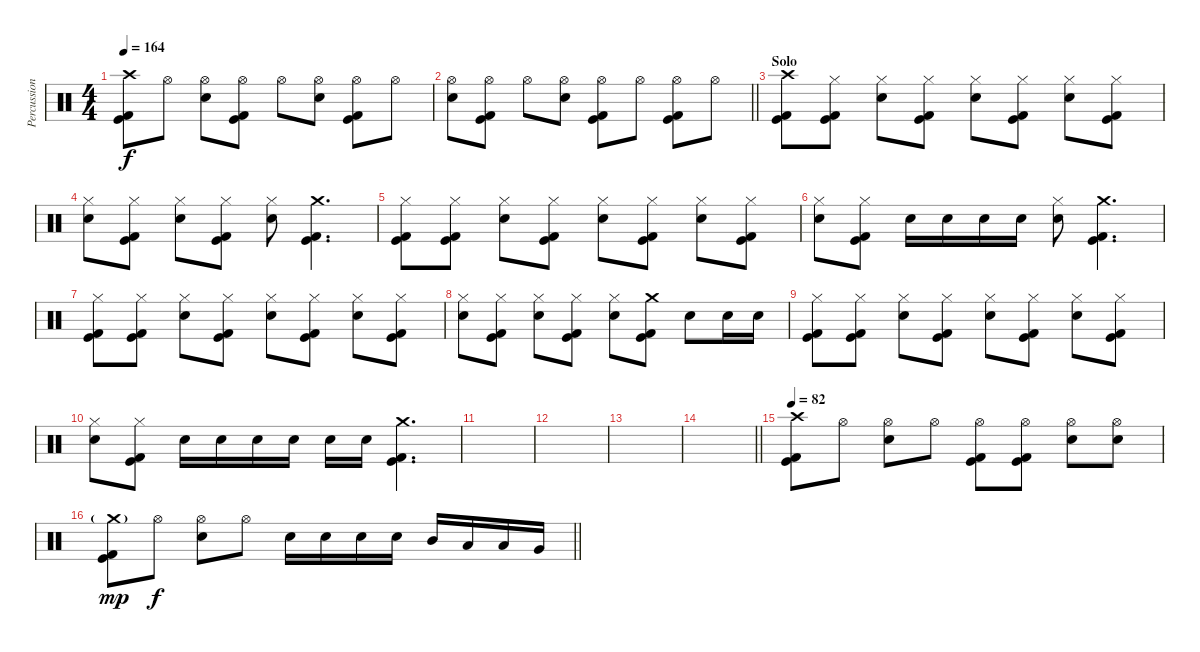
\track ("Percussion" "Percussion") {instrument percussion}
\staff {score}
\articulation defaults
\ts (4 4)
\tempo 164
\clef neutral
\ks c
("Crash high (hit)" "Kick (hit)" "Kick (hit) 2").8{dy f} "Hi-Hat (open)".8 ("Hi-Hat (open)" "Electric Snare (hit)").8 ("Hi-Hat (open)" "Kick (hit)" "Kick (hit) 2").8 "Hi-Hat (open)".8 ("Hi-Hat (open)" "Electric Snare (hit)").8 ("Hi-Hat (open)" "Kick (hit)" "Kick (hit) 2").8 "Hi-Hat (open)".8 |
\barLineRight lightlight
("Hi-Hat (open)" "Electric Snare (hit)").8 ("Hi-Hat (open)" "Kick (hit)" "Kick (hit) 2").8 "Hi-Hat (open)".8 ("Hi-Hat (open)" "Electric Snare (hit)").8 ("Hi-Hat (open)" "Kick (hit)" "Kick (hit) 2").8 "Hi-Hat (open)".8 ("Hi-Hat (open)" "Kick (hit)" "Kick (hit) 2").8 "Hi-Hat (open)".8 |
\section ("" "Solo")
("Crash high (hit)" "Kick (hit)" "Kick (hit) 2").8 ("Hi-Hat (closed)" "Kick (hit)" "Kick (hit) 2").8 ("Hi-Hat (closed)" "Electric Snare (hit)").8 ("Hi-Hat (closed)" "Kick (hit)" "Kick (hit) 2").8 ("Hi-Hat (closed)" "Electric Snare (hit)").8 ("Hi-Hat (closed)" "Kick (hit)" "Kick (hit) 2").8 ("Hi-Hat (closed)" "Electric Snare (hit)").8 ("Hi-Hat (closed)" "Kick (hit)" "Kick (hit) 2").8 |
("Hi-Hat (closed)" "Electric Snare (hit)").8 ("Hi-Hat (closed)" "Kick (hit)" "Kick (hit) 2").8 ("Hi-Hat (closed)" "Electric Snare (hit)").8 ("Hi-Hat (closed)" "Kick (hit)" "Kick (hit) 2").8 ("Hi-Hat (closed)" "Electric Snare (hit)").8 ("Crash medium (hit)" "Kick (hit)" "Kick (hit) 2").4{d} |
("Hi-Hat (closed)" "Kick (hit)" "Kick (hit) 2").8 ("Hi-Hat (closed)" "Kick (hit)" "Kick (hit) 2").8 ("Hi-Hat (closed)" "Electric Snare (hit)").8 ("Hi-Hat (closed)" "Kick (hit)" "Kick (hit) 2").8 ("Hi-Hat (closed)" "Electric Snare (hit)").8 ("Hi-Hat (closed)" "Kick (hit)" "Kick (hit) 2").8 ("Hi-Hat (closed)" "Electric Snare (hit)").8 ("Hi-Hat (closed)" "Kick (hit)" "Kick (hit) 2").8 |
("Hi-Hat (closed)" "Electric Snare (hit)").8 ("Hi-Hat (closed)" "Kick (hit)" "Kick (hit) 2").8 "Electric Snare (hit)".16 "Electric Snare (hit)".16 "Electric Snare (hit)".16 "Electric Snare (hit)".16 ("Hi-Hat (closed)" "Electric Snare (hit)").8 ("Crash medium (hit)" "Kick (hit)" "Kick (hit) 2").4{d} |
("Hi-Hat (closed)" "Kick (hit)" "Kick (hit) 2").8 ("Hi-Hat (closed)" "Kick (hit)" "Kick (hit) 2").8 ("Hi-Hat (closed)" "Electric Snare (hit)").8 ("Hi-Hat (closed)" "Kick (hit)" "Kick (hit) 2").8 ("Hi-Hat (closed)" "Electric Snare (hit)").8 ("Hi-Hat (closed)" "Kick (hit)" "Kick (hit) 2").8 ("Hi-Hat (closed)" "Electric Snare (hit)").8 ("Hi-Hat (closed)" "Kick (hit)" "Kick (hit) 2").8 |
("Hi-Hat (closed)" "Electric Snare (hit)").8 ("Hi-Hat (closed)" "Kick (hit)" "Kick (hit) 2").8 ("Hi-Hat (closed)" "Electric Snare (hit)").8 ("Hi-Hat (closed)" "Kick (hit)" "Kick (hit) 2").8 ("Hi-Hat (closed)" "Electric Snare (hit)").8 ("Crash medium (hit)" "Kick (hit)" "Kick (hit) 2").8 "Electric Snare (hit)".8 "Electric Snare (hit)".16 "Electric Snare (hit)".16 |
("Hi-Hat (closed)" "Kick (hit)" "Kick (hit) 2").8 ("Hi-Hat (closed)" "Kick (hit)" "Kick (hit) 2").8 ("Hi-Hat (closed)" "Electric Snare (hit)").8 ("Hi-Hat (closed)" "Kick (hit)" "Kick (hit) 2").8 ("Hi-Hat (closed)" "Electric Snare (hit)").8 ("Hi-Hat (closed)" "Kick (hit)" "Kick (hit) 2").8 ("Hi-Hat (closed)" "Electric Snare (hit)").8 ("Hi-Hat (closed)" "Kick (hit)" "Kick (hit) 2").8 |
("Hi-Hat (closed)" "Electric Snare (hit)").8 ("Hi-Hat (closed)" "Kick (hit)" "Kick (hit) 2").8 "Electric Snare (hit)".16 "Electric Snare (hit)".16 "Electric Snare (hit)".16 "Electric Snare (hit)".16 "Electric Snare (hit)".16 "Electric Snare (hit)".16 ("Crash medium (hit)" "Kick (hit)" "Kick (hit) 2").4{d} |
|
|
|
\barLineRight lightlight
|
\section ("" "")
\tempo 82
("Crash high (hit)" "Kick (hit)" "Kick (hit) 2").8 "Hi-Hat (open)".8 ("Hi-Hat (open)" "Electric Snare (hit)").8 "Hi-Hat (open)".8 ("Hi-Hat (open)" "Kick (hit)" "Kick (hit) 2").8 ("Hi-Hat (open)" "Kick (hit)" "Kick (hit) 2").8 ("Hi-Hat (open)" "Electric Snare (hit)").8 ("Hi-Hat (open)" "Electric Snare (hit)").8 |
\barLineRight lightlight
("Crash medium (hit)"{g} "Kick (hit)" "Kick (hit) 2").8{dy mp} "Hi-Hat (open)".8{dy f} ("Hi-Hat (open)" "Electric Snare (hit)").8 "Hi-Hat (open)".8 "Electric Snare (hit)".16 "Electric Snare (hit)".16 "Electric Snare (hit)".16 "Electric Snare (hit)".16 "Mid Tom (hit)".16 "Low Tom (hit)".16 "Low Tom (hit)".16 "Very Low Tom (hit)".16
